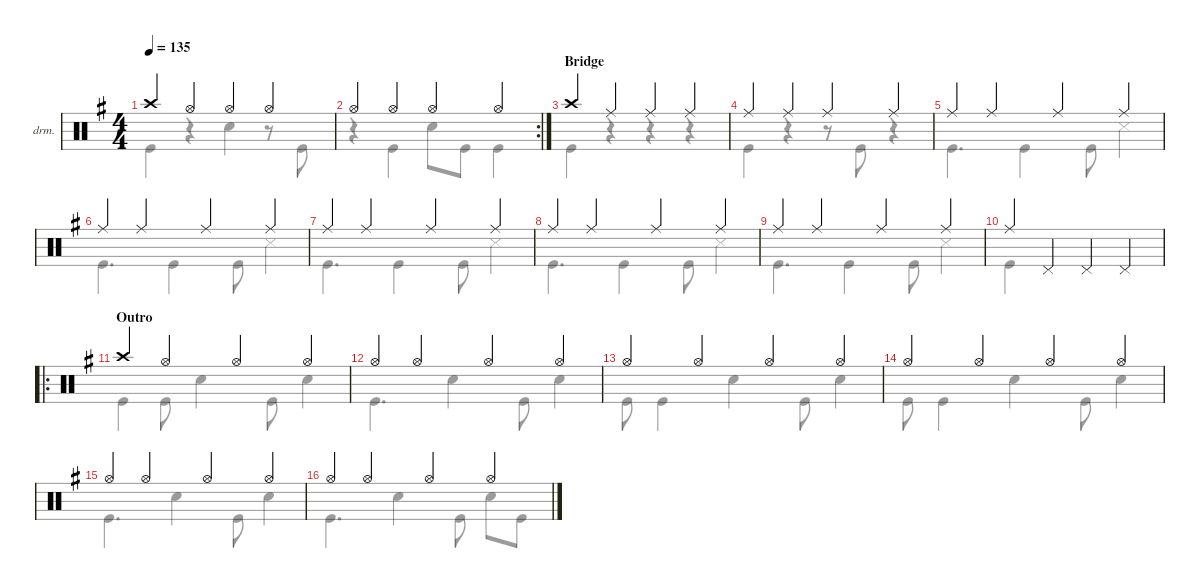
\defaultSystemsLayout 4
\hideDynamics
\bracketExtendMode nobrackets
\firstSystemTrackNameOrientation horizontal
\otherSystemsTrackNameOrientation horizontal
\track ("Drumkit" "drm.") {instrument percussion}
\staff {score}
\articulation defaults
\voice
\ts (4 4)
\tempo 135
\clef neutral
\ks eminor "Crash high (hit)".4{dy mf} "Hi-Hat (open)".4 "Hi-Hat (open)".4 "Hi-Hat (open)".4
|
\rc 2 "Hi-Hat (open)".4 "Hi-Hat (open)".4 "Hi-Hat (open)".4 "Hi-Hat (open)".4
|
\section ("" "Bridge")
"Crash high (hit)".4{dy mp} "Ride (middle)".4 "Ride (middle)".4 "Ride (middle)".4 |
"Ride (middle)".4 "Ride (middle)".4 "Ride (middle)".4 "Ride (middle)".4 |
"Ride (middle)".4 "Ride (middle)".4 "Ride (middle)".4 "Ride (middle)".4 |
"Ride (middle)".4 "Ride (middle)".4 "Ride (middle)".4 "Ride (middle)".4 |
"Ride (middle)".4 "Ride (middle)".4 "Ride (middle)".4 "Ride (middle)".4 |
"Ride (middle)".4 "Ride (middle)".4 "Ride (middle)".4 "Ride (middle)".4 |
"Ride (middle)".4 "Ride (middle)".4 "Ride (middle)".4 "Ride (middle)".4 |
"Ride (middle)".4 "Pedal Hi-Hat (hit)".4 "Pedal Hi-Hat (hit)".4 "Pedal Hi-Hat (hit)".4 |
\ro
\section ("" "Outro")
"Crash high (hit)".4{dy mf} "Hi-Hat (open)".4 "Hi-Hat (open)".4 "Hi-Hat (open)".4 |
"Hi-Hat (open)".4 "Hi-Hat (open)".4 "Hi-Hat (open)".4 "Hi-Hat (open)".4 |
"Hi-Hat (open)".4 "Hi-Hat (open)".4 "Hi-Hat (open)".4 "Hi-Hat (open)".4 |
"Hi-Hat (open)".4 "Hi-Hat (open)".4 "Hi-Hat (open)".4 "Hi-Hat (open)".4 |
"Hi-Hat (open)".4 "Hi-Hat (open)".4 "Hi-Hat (open)".4 "Hi-Hat (open)".4 |
"Hi-Hat (open)".4 "Hi-Hat (open)".4 "Hi-Hat (open)".4 "Hi-Hat (open)".4
\voice
\clef neutral
\ottava regular
\simile none
\ks eminor "Kick (hit)".4{dy mf}
r.4 "Snare (hit) 2".4 r.8 "Kick (hit)".8 |
r.4 "Kick (hit)".4 "Snare (hit) 2".8 "Kick (hit)".8 "Kick (hit)".4 |
"Kick (hit)".4{dy mp} r.4 r.4 r.4 |
"Kick (hit)".4 r.4 r.8 "Kick (hit)".8 r.4 |
"Kick (hit)".4{d} "Kick (hit)".4 "Kick (hit)".8 "Snare (side stick) 3".4 |
"Kick (hit)".4{d} "Kick (hit)".4 "Kick (hit)".8 "Snare (side stick) 3".4 |
"Kick (hit)".4{d} "Kick (hit)".4 "Kick (hit)".8 "Snare (side stick) 3".4 |
"Kick (hit)".4{d} "Kick (hit)".4 "Kick (hit)".8 "Snare (side stick) 3".4 |
"Kick (hit)".4{d} "Kick (hit)".4 "Kick (hit)".8 "Snare (side stick) 3".4 |
"Kick (hit)".4 |
"Kick (hit)".4{dy mf} "Kick (hit)".8 "Snare (hit) 2".4 "Kick (hit)".8 "Snare (hit) 2".4 |
"Kick (hit)".4{d} "Snare (hit) 2".4 "Kick (hit)".8 "Snare (hit) 2".4 |
"Kick (hit)".8 "Kick (hit)".4 "Snare (hit) 2".4 "Kick (hit)".8 "Snare (hit) 2".4 |
"Kick (hit)".8 "Kick (hit)".4 "Snare (hit) 2".4 "Kick (hit)".8 "Snare (hit) 2".4 |
"Kick (hit)".4{d} "Snare (hit) 2".4 "Kick (hit)".8 "Snare (hit) 2".4 |
"Kick (hit)".4{d} "Snare (hit) 2".4 "Kick (hit)".8 "Snare (hit) 2".8 "Kick (hit)".8
